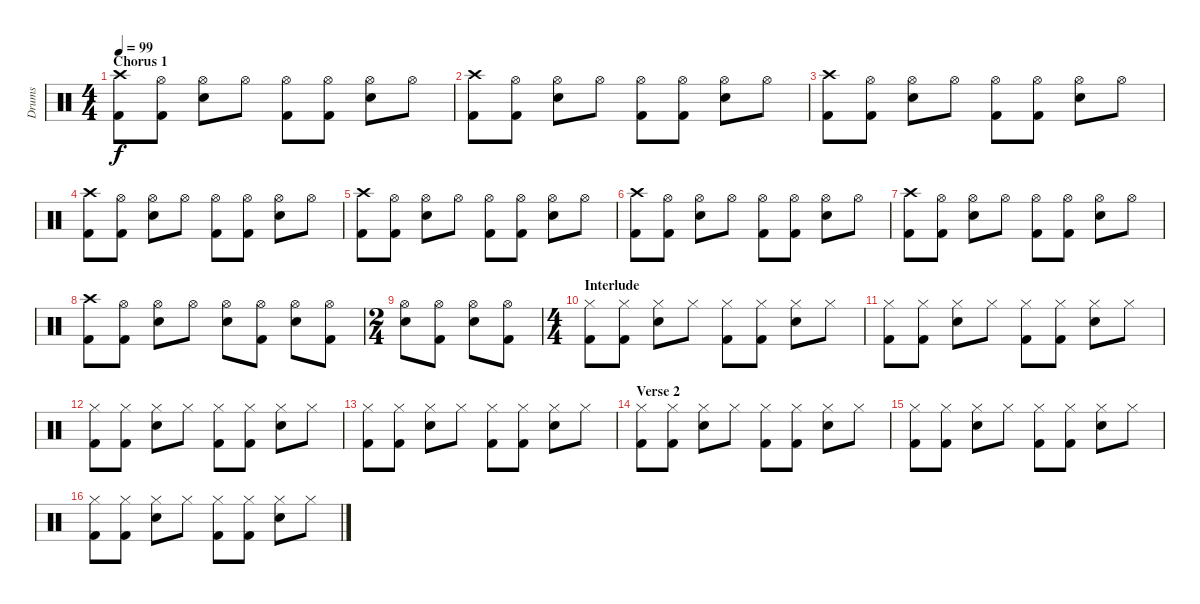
\track ("Drums " "Drums ") {instrument percussion}
\staff {score}
\articulation defaults
\ts (4 4)
\section ("" "Chorus 1")
\tempo 99
\clef neutral
\ks c
("Crash high (hit)" "Kick (hit) 2").8{dy f} ("Hi-Hat (open)" "Kick (hit) 2").8 ("Hi-Hat (open)" "Snare (hit) 2").8 "Hi-Hat (open)".8 ("Hi-Hat (open)" "Kick (hit) 2").8 ("Hi-Hat (open)" "Kick (hit) 2").8 ("Hi-Hat (open)" "Snare (hit) 2").8 "Hi-Hat (open)".8 |
("Crash high (hit)" "Kick (hit) 2").8 ("Hi-Hat (open)" "Kick (hit) 2").8 ("Hi-Hat (open)" "Snare (hit) 2").8 "Hi-Hat (open)".8 ("Hi-Hat (open)" "Kick (hit) 2").8 ("Hi-Hat (open)" "Kick (hit) 2").8 ("Hi-Hat (open)" "Snare (hit) 2").8 "Hi-Hat (open)".8 |
("Crash high (hit)" "Kick (hit) 2").8 ("Hi-Hat (open)" "Kick (hit) 2").8 ("Hi-Hat (open)" "Snare (hit) 2").8 "Hi-Hat (open)".8 ("Hi-Hat (open)" "Kick (hit) 2").8 ("Hi-Hat (open)" "Kick (hit) 2").8 ("Hi-Hat (open)" "Snare (hit) 2").8 "Hi-Hat (open)".8 |
("Crash high (hit)" "Kick (hit) 2").8 ("Hi-Hat (open)" "Kick (hit) 2").8 ("Hi-Hat (open)" "Snare (hit) 2").8 "Hi-Hat (open)".8 ("Hi-Hat (open)" "Kick (hit) 2").8 ("Hi-Hat (open)" "Kick (hit) 2").8 ("Hi-Hat (open)" "Snare (hit) 2").8 "Hi-Hat (open)".8 |
("Crash high (hit)" "Kick (hit) 2").8 ("Hi-Hat (open)" "Kick (hit) 2").8 ("Hi-Hat (open)" "Snare (hit) 2").8 "Hi-Hat (open)".8 ("Hi-Hat (open)" "Kick (hit) 2").8 ("Hi-Hat (open)" "Kick (hit) 2").8 ("Hi-Hat (open)" "Snare (hit) 2").8 "Hi-Hat (open)".8 |
("Crash high (hit)" "Kick (hit) 2").8 ("Hi-Hat (open)" "Kick (hit) 2").8 ("Hi-Hat (open)" "Snare (hit) 2").8 "Hi-Hat (open)".8 ("Hi-Hat (open)" "Kick (hit) 2").8 ("Hi-Hat (open)" "Kick (hit) 2").8 ("Hi-Hat (open)" "Snare (hit) 2").8 "Hi-Hat (open)".8 |
("Crash high (hit)" "Kick (hit) 2").8 ("Hi-Hat (open)" "Kick (hit) 2").8 ("Hi-Hat (open)" "Snare (hit) 2").8 "Hi-Hat (open)".8 ("Hi-Hat (open)" "Kick (hit) 2").8 ("Hi-Hat (open)" "Kick (hit) 2").8 ("Hi-Hat (open)" "Snare (hit) 2").8 "Hi-Hat (open)".8 |
("Crash high (hit)" "Kick (hit) 2").8 ("Hi-Hat (open)" "Kick (hit) 2").8 ("Hi-Hat (open)" "Snare (hit) 2").8 "Hi-Hat (open)".8 ("Hi-Hat (open)" "Snare (hit) 2").8 ("Hi-Hat (open)" "Kick (hit) 2").8 ("Hi-Hat (open)" "Snare (hit) 2").8 ("Hi-Hat (open)" "Kick (hit) 2").8 |
\ts (2 4)
("Hi-Hat (open)" "Snare (hit) 2").8 ("Hi-Hat (open)" "Kick (hit) 2").8 ("Hi-Hat (open)" "Snare (hit) 2").8 ("Hi-Hat (open)" "Kick (hit) 2").8 |
\ts (4 4)
\section ("" "Interlude")
("Hi-Hat (closed)" "Kick (hit) 2").8 ("Hi-Hat (closed)" "Kick (hit) 2").8 ("Hi-Hat (closed)" "Snare (hit) 2").8 "Hi-Hat (closed)".8 ("Hi-Hat (closed)" "Kick (hit) 2").8 ("Hi-Hat (closed)" "Kick (hit) 2").8 ("Hi-Hat (closed)" "Snare (hit) 2").8 "Hi-Hat (closed)".8 |
("Hi-Hat (closed)" "Kick (hit) 2").8 ("Hi-Hat (closed)" "Kick (hit) 2").8 ("Hi-Hat (closed)" "Snare (hit) 2").8 "Hi-Hat (closed)".8 ("Hi-Hat (closed)" "Kick (hit) 2").8 ("Hi-Hat (closed)" "Kick (hit) 2").8 ("Hi-Hat (closed)" "Snare (hit) 2").8 "Hi-Hat (closed)".8 |
("Hi-Hat (closed)" "Kick (hit) 2").8 ("Hi-Hat (closed)" "Kick (hit) 2").8 ("Hi-Hat (closed)" "Snare (hit) 2").8 "Hi-Hat (closed)".8 ("Hi-Hat (closed)" "Kick (hit) 2").8 ("Hi-Hat (closed)" "Kick (hit) 2").8 ("Hi-Hat (closed)" "Snare (hit) 2").8 "Hi-Hat (closed)".8 |
("Hi-Hat (closed)" "Kick (hit) 2").8 ("Hi-Hat (closed)" "Kick (hit) 2").8 ("Hi-Hat (closed)" "Snare (hit) 2").8 "Hi-Hat (closed)".8 ("Hi-Hat (closed)" "Kick (hit) 2").8 ("Hi-Hat (closed)" "Kick (hit) 2").8 ("Hi-Hat (closed)" "Snare (hit) 2").8 "Hi-Hat (closed)".8 |
\section ("" "Verse 2")
("Hi-Hat (closed)" "Kick (hit) 2").8 ("Hi-Hat (closed)" "Kick (hit) 2").8 ("Hi-Hat (closed)" "Snare (hit) 2").8 "Hi-Hat (closed)".8 ("Hi-Hat (closed)" "Kick (hit) 2").8 ("Hi-Hat (closed)" "Kick (hit) 2").8 ("Hi-Hat (closed)" "Snare (hit) 2").8 "Hi-Hat (closed)".8 |
("Hi-Hat (closed)" "Kick (hit) 2").8 ("Hi-Hat (closed)" "Kick (hit) 2").8 ("Hi-Hat (closed)" "Snare (hit) 2").8 "Hi-Hat (closed)".8 ("Hi-Hat (closed)" "Kick (hit) 2").8 ("Hi-Hat (closed)" "Kick (hit) 2").8 ("Hi-Hat (closed)" "Snare (hit) 2").8 "Hi-Hat (closed)".8 |
("Hi-Hat (closed)" "Kick (hit) 2").8 ("Hi-Hat (closed)" "Kick (hit) 2").8 ("Hi-Hat (closed)" "Snare (hit) 2").8 "Hi-Hat (closed)".8 ("Hi-Hat (closed)" "Kick (hit) 2").8 ("Hi-Hat (closed)" "Kick (hit) 2").8 ("Hi-Hat (closed)" "Snare (hit) 2").8 "Hi-Hat (closed)".8
